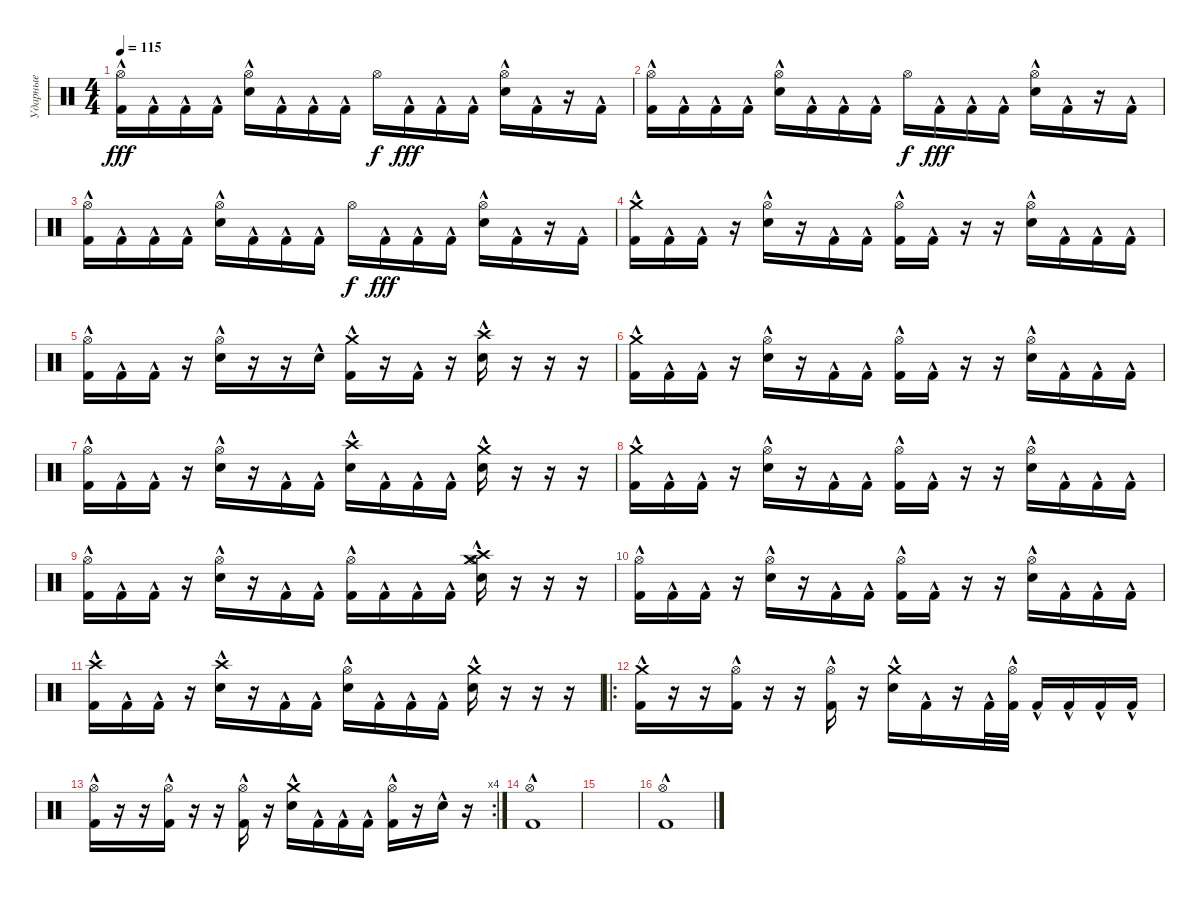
\track ("Ударные" "Ударные") {instrument percussion}
\staff
\articulation defaults
\ts (4 4)
\tempo 115
\clef neutral
\ks c
("Hi-Hat (open)" "Kick (hit) 2"{hac}).16{dy fff} "Kick (hit) 2"{hac}.16 "Kick (hit) 2"{hac}.16 "Kick (hit) 2"{hac}.16 ("Hi-Hat (open)" "Snare (hit) 2"{hac}).16 "Kick (hit) 2"{hac}.16 "Kick (hit) 2"{hac}.16 "Kick (hit) 2"{hac}.16 "Hi-Hat (open)".16{dy f} "Kick (hit) 2"{hac}.16{dy fff} "Kick (hit) 2"{hac}.16 "Kick (hit) 2"{hac}.16 ("Hi-Hat (open)" "Snare (hit) 2"{hac}).16 "Kick (hit) 2"{hac}.16 r.16 "Kick (hit) 2"{hac}.16 |
("Hi-Hat (open)" "Kick (hit) 2"{hac}).16 "Kick (hit) 2"{hac}.16 "Kick (hit) 2"{hac}.16 "Kick (hit) 2"{hac}.16 ("Hi-Hat (open)" "Snare (hit) 2"{hac}).16 "Kick (hit) 2"{hac}.16 "Kick (hit) 2"{hac}.16 "Kick (hit) 2"{hac}.16 "Hi-Hat (open)".16{dy f} "Kick (hit) 2"{hac}.16{dy fff} "Kick (hit) 2"{hac}.16 "Kick (hit) 2"{hac}.16 ("Hi-Hat (open)" "Snare (hit) 2"{hac}).16 "Kick (hit) 2"{hac}.16 r.16 "Kick (hit) 2"{hac}.16 |
("Hi-Hat (open)" "Kick (hit) 2"{hac}).16 "Kick (hit) 2"{hac}.16 "Kick (hit) 2"{hac}.16 "Kick (hit) 2"{hac}.16 ("Hi-Hat (open)" "Snare (hit) 2"{hac}).16 "Kick (hit) 2"{hac}.16 "Kick (hit) 2"{hac}.16 "Kick (hit) 2"{hac}.16 "Hi-Hat (open)".16{dy f} "Kick (hit) 2"{hac}.16{dy fff} "Kick (hit) 2"{hac}.16 "Kick (hit) 2"{hac}.16 ("Hi-Hat (open)" "Snare (hit) 2"{hac}).16 "Kick (hit) 2"{hac}.16 r.16 "Kick (hit) 2"{hac}.16 |
("Crash medium (hit)" "Kick (hit) 2"{hac}).16 "Kick (hit) 2"{hac}.16 "Kick (hit) 2"{hac}.16 r.16 ("Hi-Hat (open)" "Snare (hit) 2"{hac}).16 r.16 "Kick (hit) 2"{hac}.16 "Kick (hit) 2"{hac}.16 ("Hi-Hat (open)" "Kick (hit) 2"{hac}).16 "Kick (hit) 2"{hac}.16 r.16 r.16 ("Hi-Hat (open)" "Snare (hit) 2"{hac}).16 "Kick (hit) 2"{hac}.16 "Kick (hit) 2"{hac}.16 "Kick (hit) 2"{hac}.16 |
("Hi-Hat (open)" "Kick (hit) 2"{hac}).16 "Kick (hit) 2"{hac}.16 "Kick (hit) 2"{hac}.16 r.16 ("Hi-Hat (open)" "Snare (hit) 2"{hac}).16 r.16 r.16 "Snare (hit) 2"{hac}.16 ("Crash medium (hit)" "Kick (hit) 2"{hac}).16 r.16 "Kick (hit) 2"{hac}.16 r.16 ("Crash high (hit)" "Snare (hit) 2"{hac}).16 r.16 r.16 r.16 |
("Crash medium (hit)" "Kick (hit) 2"{hac}).16 "Kick (hit) 2"{hac}.16 "Kick (hit) 2"{hac}.16 r.16 ("Hi-Hat (open)" "Snare (hit) 2"{hac}).16 r.16 "Kick (hit) 2"{hac}.16 "Kick (hit) 2"{hac}.16 ("Hi-Hat (open)" "Kick (hit) 2"{hac}).16 "Kick (hit) 2"{hac}.16 r.16 r.16 ("Hi-Hat (open)" "Snare (hit) 2"{hac}).16 "Kick (hit) 2"{hac}.16 "Kick (hit) 2"{hac}.16 "Kick (hit) 2"{hac}.16 |
("Hi-Hat (open)" "Kick (hit) 2"{hac}).16 "Kick (hit) 2"{hac}.16 "Kick (hit) 2"{hac}.16 r.16 ("Hi-Hat (open)" "Snare (hit) 2"{hac}).16 r.16 "Kick (hit) 2"{hac}.16 "Kick (hit) 2"{hac}.16 ("Crash high (hit)" "Snare (hit) 2"{hac}).16 "Kick (hit) 2"{hac}.16 "Kick (hit) 2"{hac}.16 "Kick (hit) 2"{hac}.16 ("Crash medium (hit)" "Snare (hit) 2"{hac}).16 r.16 r.16 r.16 |
("Crash medium (hit)" "Kick (hit) 2"{hac}).16 "Kick (hit) 2"{hac}.16 "Kick (hit) 2"{hac}.16 r.16 ("Hi-Hat (open)" "Snare (hit) 2"{hac}).16 r.16 "Kick (hit) 2"{hac}.16 "Kick (hit) 2"{hac}.16 ("Hi-Hat (open)" "Kick (hit) 2"{hac}).16 "Kick (hit) 2"{hac}.16 r.16 r.16 ("Hi-Hat (open)" "Snare (hit) 2"{hac}).16 "Kick (hit) 2"{hac}.16 "Kick (hit) 2"{hac}.16 "Kick (hit) 2"{hac}.16 |
("Hi-Hat (open)" "Kick (hit) 2"{hac}).16 "Kick (hit) 2"{hac}.16 "Kick (hit) 2"{hac}.16 r.16 ("Hi-Hat (open)" "Snare (hit) 2"{hac}).16 r.16 "Kick (hit) 2"{hac}.16 "Kick (hit) 2"{hac}.16 ("Hi-Hat (open)" "Kick (hit) 2"{hac}).16 "Kick (hit) 2"{hac}.16 "Kick (hit) 2"{hac}.16 "Kick (hit) 2"{hac}.16 ("Crash medium (hit)"{hac} "Hi-Hat (open)"{hac} "Crash high (hit)"{hac} "Snare (hit) 2"{hac}).16 r.16 r.16 r.16 |
("Hi-Hat (open)" "Kick (hit) 2"{hac}).16 "Kick (hit) 2"{hac}.16 "Kick (hit) 2"{hac}.16 r.16 ("Hi-Hat (open)" "Snare (hit) 2"{hac}).16 r.16 "Kick (hit) 2"{hac}.16 "Kick (hit) 2"{hac}.16 ("Hi-Hat (open)" "Kick (hit) 2"{hac}).16 "Kick (hit) 2"{hac}.16 r.16 r.16 ("Hi-Hat (open)" "Snare (hit) 2"{hac}).16 "Kick (hit) 2"{hac}.16 "Kick (hit) 2"{hac}.16 "Kick (hit) 2"{hac}.16 |
("Crash high (hit)" "Kick (hit) 2"{hac}).16 "Kick (hit) 2"{hac}.16 "Kick (hit) 2"{hac}.16 r.16 ("Crash high (hit)" "Snare (hit) 2"{hac}).16 r.16 "Kick (hit) 2"{hac}.16 "Kick (hit) 2"{hac}.16 ("Hi-Hat (open)" "Snare (hit) 2"{hac}).16 "Kick (hit) 2"{hac}.16 "Kick (hit) 2"{hac}.16 "Kick (hit) 2"{hac}.16 ("Crash medium (hit)" "Snare (hit) 2"{hac}).16 r.16 r.16 r.16 |
\ro
("Crash medium (hit)" "Kick (hit) 2"{hac}).16 r.16 r.16 ("Hi-Hat (open)" "Kick (hit) 2"{hac}).16 r.16 r.16 ("Hi-Hat (open)" "Kick (hit) 2"{hac}).16 r.16 ("Crash medium (hit)" "Snare (hit) 2"{hac}).16 "Kick (hit) 2"{hac}.16 r.16 "Kick (hit) 2"{hac}.32 ("Hi-Hat (open)" "Kick (hit) 2"{hac}).32 "Kick (hit) 2"{hac}.16 "Kick (hit) 2"{hac}.16 "Kick (hit) 2"{hac}.16 "Kick (hit) 2"{hac}.16 |
\rc 4
("Hi-Hat (open)" "Kick (hit) 2"{hac}).16 r.16 r.16 ("Hi-Hat (open)" "Kick (hit) 2"{hac}).16 r.16 r.16 ("Hi-Hat (open)" "Kick (hit) 2"{hac}).16 r.16 ("Crash medium (hit)" "Snare (hit) 2"{hac}).16 "Kick (hit) 2"{hac}.16 "Kick (hit) 2"{hac}.16 "Kick (hit) 2"{hac}.16 ("Hi-Hat (open)" "Kick (hit) 2"{hac}).16 r.16 "Snare (hit) 2"{hac}.16 r.16 |
("Hi-Hat (open)" "Kick (hit) 2"{hac}).1 |
|
("Hi-Hat (open)" "Kick (hit) 2"{hac}).1
